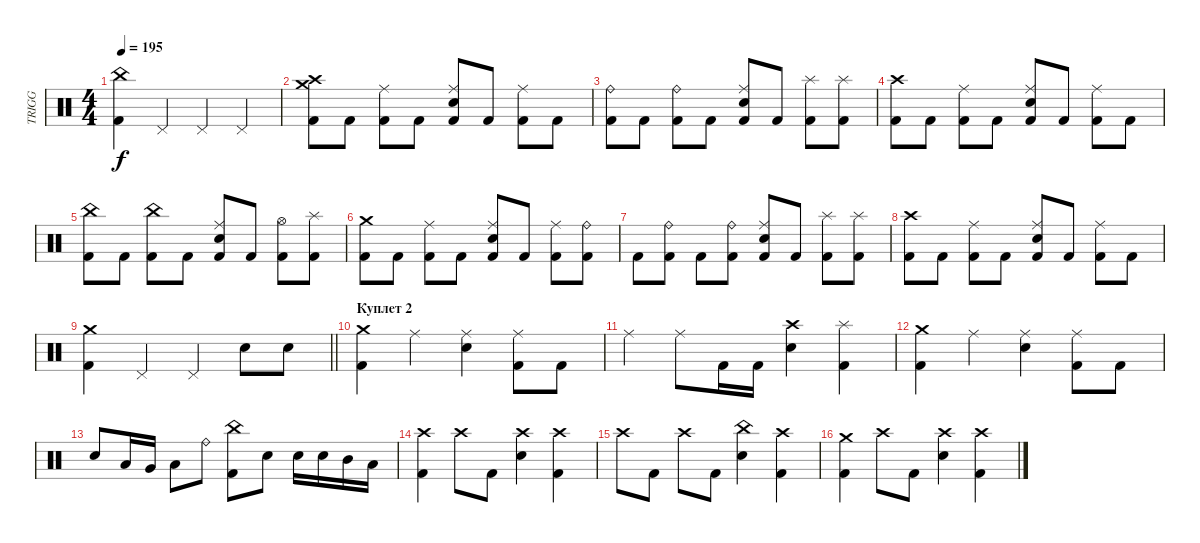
\track ("TRIGG" "TRIGG") {instrument percussion}
\staff {score}
\articulation defaults
\ts (4 4)
\tempo 195
\clef neutral
\ks c
("China (hit)" "Kick (hit) 2").4{dy f} "Pedal Hi-Hat (hit)".4 "Pedal Hi-Hat (hit)".4 "Pedal Hi-Hat (hit)".4 |
("Crash medium (hit)" "Crash high (hit)" "Kick (hit) 2").8 "Kick (hit) 2".8 ("Ride (middle)" "Kick (hit) 2").8 "Kick (hit) 2".8 ("Ride (middle)" "Electric Snare (hit)" "Kick (hit) 2").8 "Kick (hit) 2".8 ("Ride (middle)" "Kick (hit) 2").8 "Kick (hit) 2".8 |
("Ride (bell)" "Kick (hit) 2").8 "Kick (hit) 2".8 ("Ride (bell)" "Kick (hit) 2").8 "Kick (hit) 2".8 ("Ride (middle)" "Electric Snare (hit)" "Kick (hit) 2").8 "Kick (hit) 2".8 ("Splash (hit)" "Kick (hit) 2").8 ("Splash (hit)" "Kick (hit) 2").8 |
("Crash high (hit)" "Kick (hit) 2").8 "Kick (hit) 2".8 ("Ride (middle)" "Kick (hit) 2").8 "Kick (hit) 2".8 ("Ride (middle)" "Electric Snare (hit)" "Kick (hit) 2").8 "Kick (hit) 2".8 ("Ride (middle)" "Kick (hit) 2").8 "Kick (hit) 2".8 |
("China (hit)" "Kick (hit) 2").8 "Kick (hit) 2".8 ("China (hit)" "Kick (hit) 2").8 "Kick (hit) 2".8 ("Ride (middle)" "Electric Snare (hit)" "Kick (hit) 2").8 "Kick (hit) 2".8 ("Hi-Hat (open)" "Kick (hit) 2").8 ("Splash (hit)" "Kick (hit) 2").8 |
("Crash medium (hit)" "Kick (hit) 2").8 "Kick (hit) 2".8 ("Ride (middle)" "Kick (hit) 2").8 "Kick (hit) 2".8 ("Ride (middle)" "Electric Snare (hit)" "Kick (hit) 2").8 "Kick (hit) 2".8 ("Ride (middle)" "Kick (hit) 2").8 ("Ride (bell)" "Kick (hit) 2").8 |
"Kick (hit) 2".8 ("Ride (bell)" "Kick (hit) 2").8 "Kick (hit) 2".8 ("Ride (bell)" "Kick (hit) 2").8 ("Ride (middle)" "Electric Snare (hit)" "Kick (hit) 2").8 "Kick (hit) 2".8 ("Splash (hit)" "Kick (hit) 2").8 ("Splash (hit)" "Kick (hit) 2").8 |
("Crash high (hit)" "Kick (hit) 2").8 "Kick (hit) 2".8 ("Ride (middle)" "Kick (hit) 2").8 "Kick (hit) 2".8 ("Ride (middle)" "Electric Snare (hit)" "Kick (hit) 2").8 "Kick (hit) 2".8 ("Ride (middle)" "Kick (hit) 2").8 "Kick (hit) 2".8 |
\barLineRight lightlight
("Crash medium (hit)" "Kick (hit) 2").4 "Pedal Hi-Hat (hit)".4 "Pedal Hi-Hat (hit)".4 "Electric Snare (hit)".8 "Electric Snare (hit)".8 |
\section ("" "Куплет 2")
("Crash medium (hit)" "Kick (hit) 2").4 "Ride (middle)".4 ("Ride (middle)" "Electric Snare (hit)").4 ("Ride (middle)" "Kick (hit) 2").8 "Kick (hit) 2".8 |
"Ride (middle)".4 "Ride (middle)".8 "Kick (hit) 2".16 "Kick (hit) 2".16 ("Crash high (hit)" "Electric Snare (hit)").4 ("Splash (hit)" "Kick (hit) 2").4 |
("Crash medium (hit)" "Kick (hit) 2").4 "Ride (middle)".4 ("Ride (middle)" "Electric Snare (hit)").4 ("Ride (middle)" "Kick (hit) 2").8 "Kick (hit) 2".8 |
"Electric Snare (hit)".8 "Low Tom (hit)".16 "Very Low Tom (hit)".16 "Low Floor Tom (hit)".8 "Ride (bell)".8 ("China (hit)" "Kick (hit) 2").8 "Electric Snare (hit)".8 "Electric Snare (hit)".16 "Electric Snare (hit)".16 "Mid Tom (hit)".16 "Low Tom (hit)".16 |
("Crash high (hit)" "Kick (hit) 2").4 "Crash high (hit)".8 "Kick (hit) 2".8 ("Crash high (hit)" "Electric Snare (hit)").4 ("Crash high (hit)" "Kick (hit) 2").4 |
"Crash high (hit)".8 "Kick (hit) 2".8 "Crash high (hit)".8 "Kick (hit) 2".8 ("China (hit)" "Electric Snare (hit)").4 ("Crash high (hit)" "Kick (hit) 2").4 |
("Crash medium (hit)" "Kick (hit) 2").4 "Crash high (hit)".8 "Kick (hit) 2".8 ("Crash high (hit)" "Electric Snare (hit)").4 ("Crash high (hit)" "Kick (hit) 2").4
